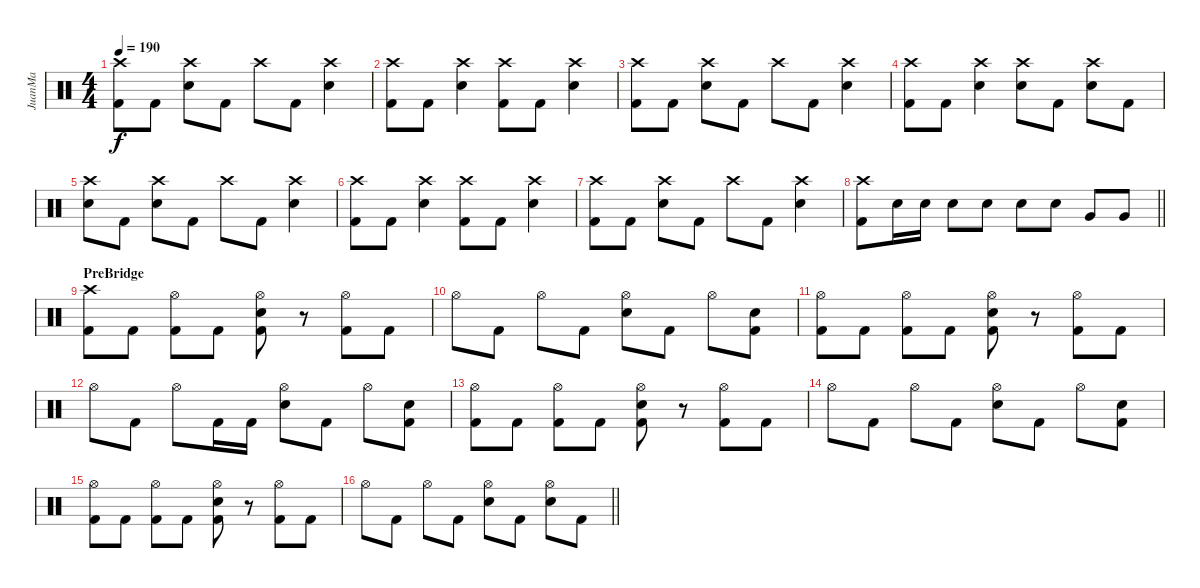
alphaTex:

\track ("JuanMa" "JuanMa") {instrument percussion}
\staff {score}
\articulation defaults
\ts (4 4)
\tempo 190
\clef neutral
\ks c
("Crash high (hit)" "Kick (hit) 2").8{dy f} "Kick (hit) 2".8 ("Crash high (hit)" "Electric Snare (hit)").8 "Kick (hit) 2".8 "Crash high (hit)".8 "Kick (hit) 2".8 ("Crash high (hit)" "Electric Snare (hit)").4 |
("Crash high (hit)" "Kick (hit) 2").8 "Kick (hit) 2".8 ("Crash high (hit)" "Electric Snare (hit)").4 ("Crash high (hit)" "Kick (hit) 2").8 "Kick (hit) 2".8 ("Crash high (hit)" "Electric Snare (hit)").4 |
("Crash high (hit)" "Kick (hit) 2").8 "Kick (hit) 2".8 ("Crash high (hit)" "Electric Snare (hit)").8 "Kick (hit) 2".8 "Crash high (hit)".8 "Kick (hit) 2".8 ("Crash high (hit)" "Electric Snare (hit)").4 |
("Crash high (hit)" "Kick (hit) 2").8 "Kick (hit) 2".8 ("Crash high (hit)" "Electric Snare (hit)").4 ("Crash high (hit)" "Electric Snare (hit)").8 "Kick (hit) 2".8 ("Crash high (hit)" "Electric Snare (hit)").8 "Kick (hit) 2".8 |
("Crash high (hit)" "Electric Snare (hit)").8 "Kick (hit) 2".8 ("Crash high (hit)" "Electric Snare (hit)").8 "Kick (hit) 2".8 "Crash high (hit)".8 "Kick (hit) 2".8 ("Crash high (hit)" "Electric Snare (hit)").4 |
("Crash high (hit)" "Kick (hit) 2").8 "Kick (hit) 2".8 ("Crash high (hit)" "Electric Snare (hit)").4 ("Crash high (hit)" "Kick (hit) 2").8 "Kick (hit) 2".8 ("Crash high (hit)" "Electric Snare (hit)").4 |
("Crash high (hit)" "Kick (hit) 2").8 "Kick (hit) 2".8 ("Crash high (hit)" "Electric Snare (hit)").8 "Kick (hit) 2".8 "Crash high (hit)".8 "Kick (hit) 2".8 ("Crash high (hit)" "Electric Snare (hit)").4 |
\barLineRight lightlight
("Crash high (hit)" "Kick (hit) 2").8 "Electric Snare (hit)".16 "Electric Snare (hit)".16 "Electric Snare (hit)".8 "Electric Snare (hit)".8 "Electric Snare (hit)".8 "Electric Snare (hit)".8 "Very Low Tom (hit)".8 "Very Low Tom (hit)".8 |
\section ("" "PreBridge")
("Crash high (hit)" "Kick (hit) 2").8 "Kick (hit) 2".8 ("Hi-Hat (open)" "Kick (hit) 2").8 "Kick (hit) 2".8 ("Hi-Hat (open)" "Electric Snare (hit)" "Kick (hit) 2").8 r.8 ("Hi-Hat (open)" "Kick (hit) 2").8 "Kick (hit) 2".8 |
"Hi-Hat (open)".8 "Kick (hit) 2".8 "Hi-Hat (open)".8 "Kick (hit) 2".8 ("Hi-Hat (open)" "Electric Snare (hit)").8 "Kick (hit) 2".8 "Hi-Hat (open)".8 ("Electric Snare (hit)" "Kick (hit) 2").8 |
("Hi-Hat (open)" "Kick (hit) 2").8 "Kick (hit) 2".8 ("Hi-Hat (open)" "Kick (hit) 2").8 "Kick (hit) 2".8 ("Hi-Hat (open)" "Electric Snare (hit)" "Kick (hit) 2").8 r.8 ("Hi-Hat (open)" "Kick (hit) 2").8 "Kick (hit) 2".8 |
"Hi-Hat (open)".8 "Kick (hit) 2".8 "Hi-Hat (open)".8 "Kick (hit) 2".16 "Kick (hit) 2".16 ("Hi-Hat (open)" "Electric Snare (hit)").8 "Kick (hit) 2".8 "Hi-Hat (open)".8 ("Electric Snare (hit)" "Kick (hit) 2").8 |
("Hi-Hat (open)" "Kick (hit) 2").8 "Kick (hit) 2".8 ("Hi-Hat (open)" "Kick (hit) 2").8 "Kick (hit) 2".8 ("Hi-Hat (open)" "Electric Snare (hit)" "Kick (hit) 2").8 r.8 ("Hi-Hat (open)" "Kick (hit) 2").8 "Kick (hit) 2".8 |
"Hi-Hat (open)".8 "Kick (hit) 2".8 "Hi-Hat (open)".8 "Kick (hit) 2".8 ("Hi-Hat (open)" "Electric Snare (hit)").8 "Kick (hit) 2".8 "Hi-Hat (open)".8 ("Electric Snare (hit)" "Kick (hit) 2").8 |
("Hi-Hat (open)" "Kick (hit) 2").8 "Kick (hit) 2".8 ("Hi-Hat (open)" "Kick (hit) 2").8 "Kick (hit) 2".8 ("Hi-Hat (open)" "Electric Snare (hit)" "Kick (hit) 2").8 r.8 ("Hi-Hat (open)" "Kick (hit) 2").8 "Kick (hit) 2".8 |
\barLineRight lightlight "Hi-Hat (open)".8 "Kick (hit) 2".8 "Hi-Hat (open)".8 "Kick (hit) 2".8
("Hi-Hat (open)" "Electric Snare (hit)").8 "Kick (hit) 2".8 ("Hi-Hat (open)" "Electric Snare (hit)").8 "Kick (hit) 2".8
